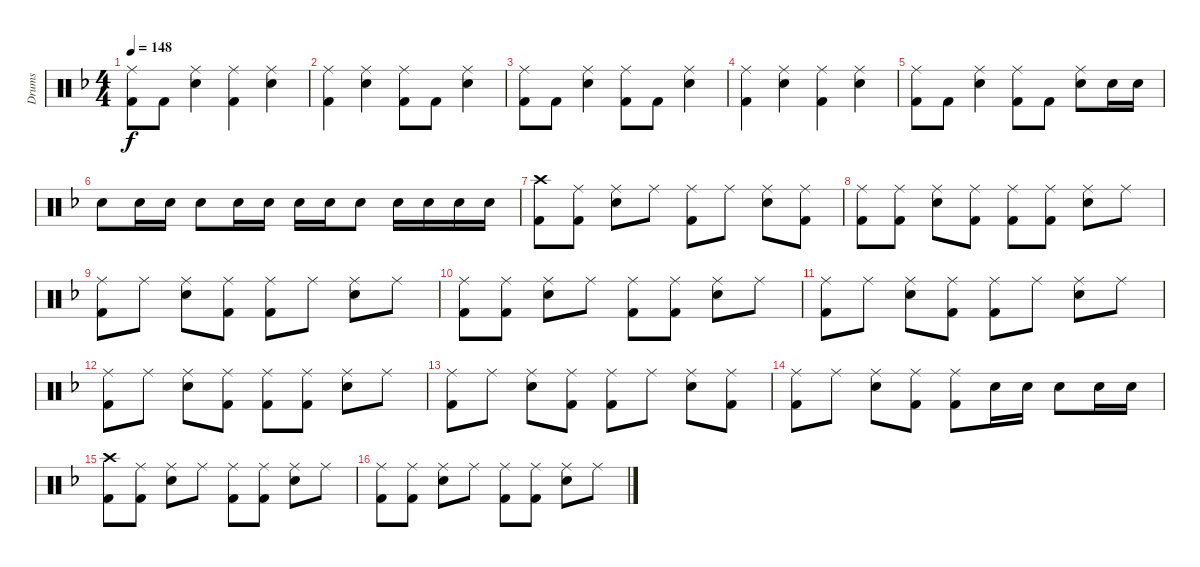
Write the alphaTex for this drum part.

\track ("Drums" "Drums") {instrument percussion}
\staff {score}
\articulation defaults
\ts (4 4)
\tempo 148
\clef neutral
\ks f
("Ride (middle)" "Kick (hit) 2").8{dy f} "Kick (hit) 2".8 ("Ride (middle)" "Snare (hit) 2").4 ("Ride (middle)" "Kick (hit) 2").4 ("Ride (middle)" "Snare (hit) 2").4 |
("Ride (middle)" "Kick (hit) 2").4 ("Ride (middle)" "Snare (hit) 2").4 ("Ride (middle)" "Kick (hit) 2").8 "Kick (hit) 2".8 ("Ride (middle)" "Snare (hit) 2").4 |
("Ride (middle)" "Kick (hit) 2").8 "Kick (hit) 2".8 ("Ride (middle)" "Snare (hit) 2").4 ("Ride (middle)" "Kick (hit) 2").8 "Kick (hit) 2".8 ("Ride (middle)" "Snare (hit) 2").4 |
("Ride (middle)" "Kick (hit) 2").4 ("Ride (middle)" "Snare (hit) 2").4 ("Ride (middle)" "Kick (hit) 2").4 ("Ride (middle)" "Snare (hit) 2").4 |
("Ride (middle)" "Kick (hit) 2").8 "Kick (hit) 2".8 ("Ride (middle)" "Snare (hit) 2").4 ("Ride (middle)" "Kick (hit) 2").8 "Kick (hit) 2".8 ("Ride (middle)" "Snare (hit) 2").8 "Snare (hit) 2".16 "Snare (hit) 2".16 |
"Snare (hit) 2".8 "Snare (hit) 2".16 "Snare (hit) 2".16 "Snare (hit) 2".8 "Snare (hit) 2".16 "Snare (hit) 2".16 "Snare (hit) 2".16 "Snare (hit) 2".16 "Snare (hit) 2".8 "Snare (hit) 2".16 "Snare (hit) 2".16 "Snare (hit) 2".16 "Snare (hit) 2".16 |
("Crash high (hit)" "Kick (hit) 2").8 ("Ride (middle)" "Kick (hit) 2").8 ("Ride (middle)" "Snare (hit) 2").8 "Ride (middle)".8 ("Ride (middle)" "Kick (hit) 2").8 "Ride (middle)".8 ("Ride (middle)" "Snare (hit) 2").8 ("Ride (middle)" "Kick (hit) 2").8 |
("Ride (middle)" "Kick (hit) 2").8 ("Ride (middle)" "Kick (hit) 2").8 ("Ride (middle)" "Snare (hit) 2").8 ("Ride (middle)" "Kick (hit) 2").8 ("Ride (middle)" "Kick (hit) 2").8 ("Ride (middle)" "Kick (hit) 2").8 ("Ride (middle)" "Snare (hit) 2").8 "Ride (middle)".8 |
("Ride (middle)" "Kick (hit) 2").8 "Ride (middle)".8 ("Ride (middle)" "Snare (hit) 2").8 ("Ride (middle)" "Kick (hit) 2").8 ("Ride (middle)" "Kick (hit) 2").8 "Ride (middle)".8 ("Ride (middle)" "Snare (hit) 2").8 "Ride (middle)".8 |
("Ride (middle)" "Kick (hit) 2").8 ("Ride (middle)" "Kick (hit) 2").8 ("Ride (middle)" "Snare (hit) 2").8 "Ride (middle)".8 ("Ride (middle)" "Kick (hit) 2").8 ("Ride (middle)" "Kick (hit) 2").8 ("Ride (middle)" "Snare (hit) 2").8 "Ride (middle)".8 |
("Ride (middle)" "Kick (hit) 2").8 "Ride (middle)".8 ("Ride (middle)" "Snare (hit) 2").8 ("Ride (middle)" "Kick (hit) 2").8 ("Ride (middle)" "Kick (hit) 2").8 "Ride (middle)".8 ("Ride (middle)" "Snare (hit) 2").8 "Ride (middle)".8 |
("Ride (middle)" "Kick (hit) 2").8 "Ride (middle)".8 ("Ride (middle)" "Snare (hit) 2").8 ("Ride (middle)" "Kick (hit) 2").8 ("Ride (middle)" "Kick (hit) 2").8 ("Ride (middle)" "Kick (hit) 2").8 ("Ride (middle)" "Snare (hit) 2").8 "Ride (middle)".8 |
("Ride (middle)" "Kick (hit) 2").8 "Ride (middle)".8 ("Ride (middle)" "Snare (hit) 2").8 ("Ride (middle)" "Kick (hit) 2").8 ("Ride (middle)" "Kick (hit) 2").8 "Ride (middle)".8 ("Ride (middle)" "Snare (hit) 2").8 ("Ride (middle)" "Kick (hit) 2").8 |
("Ride (middle)" "Kick (hit) 2").8 "Ride (middle)".8 ("Ride (middle)" "Snare (hit) 2").8 ("Ride (middle)" "Kick (hit) 2").8 ("Ride (middle)" "Kick (hit) 2").8 "Snare (hit) 2".16 "Snare (hit) 2".16 "Snare (hit) 2".8 "Snare (hit) 2".16 "Snare (hit) 2".16 |
("Crash high (hit)" "Kick (hit) 2").8 ("Ride (middle)" "Kick (hit) 2").8 ("Ride (middle)" "Snare (hit) 2").8 "Ride (middle)".8 ("Ride (middle)" "Kick (hit) 2").8 ("Ride (middle)" "Kick (hit) 2").8 ("Ride (middle)" "Snare (hit) 2").8 "Ride (middle)".8 |
("Ride (middle)" "Kick (hit) 2").8 ("Ride (middle)" "Kick (hit) 2").8 ("Ride (middle)" "Snare (hit) 2").8 "Ride (middle)".8 ("Ride (middle)" "Kick (hit) 2").8 ("Ride (middle)" "Kick (hit) 2").8 ("Ride (middle)" "Snare (hit) 2").8 "Ride (middle)".8
